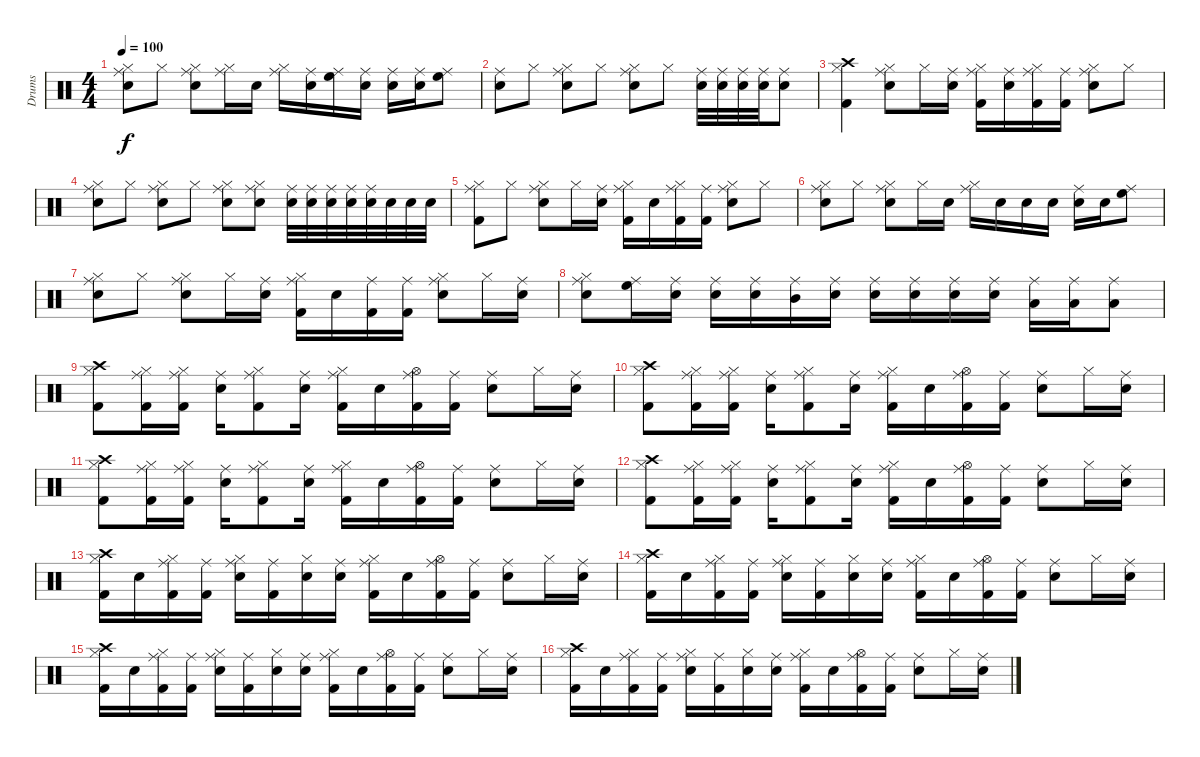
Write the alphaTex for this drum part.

\track ("Drums" "Drums") {instrument percussion}
\staff {score}
\articulation defaults
\ts (4 4)
\tempo 100
\clef neutral
\ks c
("Ride (middle)" "Hi-Hat (closed)" "Electric Snare (hit)").8{dy f} "Hi-Hat (closed)".8 ("Ride (middle)" "Hi-Hat (closed)" "Electric Snare (hit)").8 ("Ride (middle)" "Hi-Hat (closed)").16 "Electric Snare (hit)".16 ("Ride (middle)" "Hi-Hat (closed)").16 ("Ride (middle)" "Electric Snare (hit)").16 ("Ride (middle)" "High Floor Tom (hit)").16 ("Ride (middle)" "Electric Snare (hit)").16 ("Ride (middle)" "Electric Snare (hit)").16 ("Ride (middle)" "Electric Snare (hit)").16 ("Ride (middle)" "High Floor Tom (hit)").8 |
("Ride (middle)" "Electric Snare (hit)").8 "Hi-Hat (closed)".8 ("Ride (middle)" "Hi-Hat (closed)" "Electric Snare (hit)").8 "Hi-Hat (closed)".8 ("Ride (middle)" "Hi-Hat (closed)" "Electric Snare (hit)").8 "Hi-Hat (closed)".8 ("Ride (middle)" "Electric Snare (hit)").32 ("Ride (middle)" "Electric Snare (hit)").32 ("Ride (middle)" "Electric Snare (hit)").32 ("Ride (middle)" "Electric Snare (hit)").32 ("Ride (middle)" "Electric Snare (hit)").8 |
("Crash high (hit)" "Hi-Hat (closed)" "Kick (hit) 2").4 ("Ride (middle)" "Hi-Hat (closed)" "Electric Snare (hit)").8 "Hi-Hat (closed)".16 ("Ride (middle)" "Electric Snare (hit)").16 ("Ride (middle)" "Hi-Hat (closed)" "Kick (hit) 2").16 ("Ride (middle)" "Electric Snare (hit)").16 ("Ride (middle)" "Hi-Hat (closed)" "Kick (hit) 2").16 ("Ride (middle)" "Kick (hit) 2").16 ("Ride (middle)" "Hi-Hat (closed)" "Electric Snare (hit)").8 "Hi-Hat (closed)".8 |
("Ride (middle)" "Hi-Hat (closed)" "Electric Snare (hit)").8 "Hi-Hat (closed)".8 ("Ride (middle)" "Hi-Hat (closed)" "Electric Snare (hit)").8 "Hi-Hat (closed)".8 ("Ride (middle)" "Hi-Hat (closed)" "Electric Snare (hit)").8 ("Ride (middle)" "Hi-Hat (closed)" "Electric Snare (hit)").8 ("Ride (middle)" "Electric Snare (hit)").32 ("Ride (middle)" "Electric Snare (hit)").32 ("Ride (middle)" "Electric Snare (hit)").32 ("Ride (middle)" "Electric Snare (hit)").32 ("Ride (middle)" "Electric Snare (hit)").32 "Electric Snare (hit)".32 "Electric Snare (hit)".32 "Electric Snare (hit)".32 |
("Ride (middle)" "Hi-Hat (closed)" "Kick (hit) 2").8 "Hi-Hat (closed)".8 ("Ride (middle)" "Hi-Hat (closed)" "Electric Snare (hit)").8 "Hi-Hat (closed)".16 ("Ride (middle)" "Electric Snare (hit)").16 ("Ride (middle)" "Hi-Hat (closed)" "Kick (hit) 2").16 "Electric Snare (hit)".16 ("Ride (middle)" "Hi-Hat (closed)" "Kick (hit) 2").16 ("Ride (middle)" "Kick (hit) 2").16 ("Ride (middle)" "Hi-Hat (closed)" "Electric Snare (hit)").8 "Hi-Hat (closed)".8 |
("Ride (middle)" "Hi-Hat (closed)" "Electric Snare (hit)").8 "Hi-Hat (closed)".8 ("Ride (middle)" "Hi-Hat (closed)" "Electric Snare (hit)").8 "Hi-Hat (closed)".16 "Electric Snare (hit)".16 ("Ride (middle)" "Hi-Hat (closed)").16 "Electric Snare (hit)".16 "Electric Snare (hit)".16 "Electric Snare (hit)".16 ("Ride (middle)" "Electric Snare (hit)").16 "Electric Snare (hit)".16 ("Ride (middle)" "High Floor Tom (hit)").8 |
("Ride (middle)" "Hi-Hat (closed)" "Electric Snare (hit)").8 "Hi-Hat (closed)".8 ("Ride (middle)" "Hi-Hat (closed)" "Electric Snare (hit)").8 "Hi-Hat (closed)".16 ("Ride (middle)" "Electric Snare (hit)").16 ("Ride (middle)" "Hi-Hat (closed)" "Kick (hit) 2").16 "Electric Snare (hit)".16 ("Ride (middle)" "Kick (hit) 2").16 ("Ride (middle)" "Kick (hit) 2").16 ("Ride (middle)" "Hi-Hat (closed)" "Electric Snare (hit)").8 "Hi-Hat (closed)".16 ("Ride (middle)" "Electric Snare (hit)").16 |
("Ride (middle)" "Hi-Hat (closed)" "Electric Snare (hit)").8 ("Ride (middle)" "High Floor Tom (hit)").16 ("Ride (middle)" "Electric Snare (hit)").16 ("Ride (middle)" "Electric Snare (hit)").16 ("Ride (middle)" "Electric Snare (hit)").16 ("Ride (middle)" "Mid Tom (hit)").16 ("Ride (middle)" "Electric Snare (hit)").16 ("Ride (middle)" "Electric Snare (hit)").16 ("Ride (middle)" "Electric Snare (hit)").16 ("Ride (middle)" "Electric Snare (hit)").16 ("Ride (middle)" "Electric Snare (hit)").16 ("Ride (middle)" "Low Tom (hit)").16 ("Ride (middle)" "Low Tom (hit)").16 ("Ride (middle)" "Low Floor Tom (hit)").8 |
("Crash high (hit)" "Hi-Hat (closed)" "Kick (hit) 2").8 ("Ride (middle)" "Hi-Hat (closed)" "Kick (hit) 2").16 ("Ride (middle)" "Hi-Hat (closed)" "Kick (hit) 2").16 ("Ride (middle)" "Electric Snare (hit)").16 ("Ride (middle)" "Hi-Hat (closed)" "Kick (hit) 2").8 ("Ride (middle)" "Electric Snare (hit)").16 ("Ride (middle)" "Hi-Hat (closed)" "Kick (hit) 2").16 "Electric Snare (hit)".16 ("Ride (middle)" "Hi-Hat (open)" "Kick (hit) 2").16 ("Ride (middle)" "Kick (hit) 2").16 ("Ride (middle)" "Electric Snare (hit)").8 "Hi-Hat (closed)".16 ("Ride (middle)" "Electric Snare (hit)").16 |
("Crash high (hit)" "Hi-Hat (closed)" "Kick (hit) 2").8 ("Ride (middle)" "Hi-Hat (closed)" "Kick (hit) 2").16 ("Ride (middle)" "Hi-Hat (closed)" "Kick (hit) 2").16 ("Ride (middle)" "Electric Snare (hit)").16 ("Ride (middle)" "Hi-Hat (closed)" "Kick (hit) 2").8 ("Ride (middle)" "Electric Snare (hit)").16 ("Ride (middle)" "Hi-Hat (closed)" "Kick (hit) 2").16 "Electric Snare (hit)".16 ("Ride (middle)" "Hi-Hat (open)" "Kick (hit) 2").16 ("Ride (middle)" "Kick (hit) 2").16 ("Ride (middle)" "Electric Snare (hit)").8 "Hi-Hat (closed)".16 ("Ride (middle)" "Electric Snare (hit)").16 |
("Crash high (hit)" "Hi-Hat (closed)" "Kick (hit) 2").8 ("Ride (middle)" "Hi-Hat (closed)" "Kick (hit) 2").16 ("Ride (middle)" "Hi-Hat (closed)" "Kick (hit) 2").16 ("Ride (middle)" "Electric Snare (hit)").16 ("Ride (middle)" "Hi-Hat (closed)" "Kick (hit) 2").8 ("Ride (middle)" "Electric Snare (hit)").16 ("Ride (middle)" "Hi-Hat (closed)" "Kick (hit) 2").16 "Electric Snare (hit)".16 ("Ride (middle)" "Hi-Hat (open)" "Kick (hit) 2").16 ("Ride (middle)" "Kick (hit) 2").16 ("Ride (middle)" "Electric Snare (hit)").8 "Hi-Hat (closed)".16 ("Ride (middle)" "Electric Snare (hit)").16 |
("Crash high (hit)" "Hi-Hat (closed)" "Kick (hit) 2").8 ("Ride (middle)" "Hi-Hat (closed)" "Kick (hit) 2").16 ("Ride (middle)" "Hi-Hat (closed)" "Kick (hit) 2").16 ("Ride (middle)" "Electric Snare (hit)").16 ("Ride (middle)" "Hi-Hat (closed)" "Kick (hit) 2").8 ("Ride (middle)" "Electric Snare (hit)").16 ("Ride (middle)" "Hi-Hat (closed)" "Kick (hit) 2").16 "Electric Snare (hit)".16 ("Ride (middle)" "Hi-Hat (open)" "Kick (hit) 2").16 ("Ride (middle)" "Kick (hit) 2").16 ("Ride (middle)" "Electric Snare (hit)").8 "Hi-Hat (closed)".16 ("Ride (middle)" "Electric Snare (hit)").16 |
("Crash high (hit)" "Hi-Hat (closed)" "Kick (hit) 2").16 "Electric Snare (hit)".16 ("Ride (middle)" "Hi-Hat (closed)" "Kick (hit) 2").16 ("Ride (middle)" "Kick (hit) 2").16 ("Ride (middle)" "Hi-Hat (closed)" "Electric Snare (hit)").16 ("Ride (middle)" "Kick (hit) 2").16 ("Hi-Hat (closed)" "Electric Snare (hit)").16 ("Ride (middle)" "Electric Snare (hit)").16 ("Ride (middle)" "Hi-Hat (closed)" "Kick (hit) 2").16 "Electric Snare (hit)".16 ("Ride (middle)" "Hi-Hat (open)" "Kick (hit) 2").16 ("Ride (middle)" "Kick (hit) 2").16 ("Ride (middle)" "Electric Snare (hit)").8 "Hi-Hat (closed)".16 ("Ride (middle)" "Electric Snare (hit)").16 |
("Crash high (hit)" "Hi-Hat (closed)" "Kick (hit) 2").16 "Electric Snare (hit)".16 ("Ride (middle)" "Hi-Hat (closed)" "Kick (hit) 2").16 ("Ride (middle)" "Kick (hit) 2").16 ("Ride (middle)" "Hi-Hat (closed)" "Electric Snare (hit)").16 ("Ride (middle)" "Kick (hit) 2").16 ("Hi-Hat (closed)" "Electric Snare (hit)").16 ("Ride (middle)" "Electric Snare (hit)").16 ("Ride (middle)" "Hi-Hat (closed)" "Kick (hit) 2").16 "Electric Snare (hit)".16 ("Ride (middle)" "Hi-Hat (open)" "Kick (hit) 2").16 ("Ride (middle)" "Kick (hit) 2").16 ("Ride (middle)" "Electric Snare (hit)").8 "Hi-Hat (closed)".16 ("Ride (middle)" "Electric Snare (hit)").16 |
("Crash high (hit)" "Hi-Hat (closed)" "Kick (hit) 2").16 "Electric Snare (hit)".16 ("Ride (middle)" "Hi-Hat (closed)" "Kick (hit) 2").16 ("Ride (middle)" "Kick (hit) 2").16 ("Ride (middle)" "Hi-Hat (closed)" "Electric Snare (hit)").16 ("Ride (middle)" "Kick (hit) 2").16 ("Hi-Hat (closed)" "Electric Snare (hit)").16 ("Ride (middle)" "Electric Snare (hit)").16 ("Ride (middle)" "Hi-Hat (closed)" "Kick (hit) 2").16 "Electric Snare (hit)".16 ("Ride (middle)" "Hi-Hat (open)" "Kick (hit) 2").16 ("Ride (middle)" "Kick (hit) 2").16 ("Ride (middle)" "Electric Snare (hit)").8 "Hi-Hat (closed)".16 ("Ride (middle)" "Electric Snare (hit)").16 |
("Crash high (hit)" "Hi-Hat (closed)" "Kick (hit) 2").16 "Electric Snare (hit)".16 ("Ride (middle)" "Hi-Hat (closed)" "Kick (hit) 2").16 ("Ride (middle)" "Kick (hit) 2").16 ("Ride (middle)" "Hi-Hat (closed)" "Electric Snare (hit)").16 ("Ride (middle)" "Kick (hit) 2").16 ("Hi-Hat (closed)" "Electric Snare (hit)").16 ("Ride (middle)" "Electric Snare (hit)").16 ("Ride (middle)" "Hi-Hat (closed)" "Kick (hit) 2").16 "Electric Snare (hit)".16 ("Ride (middle)" "Hi-Hat (open)" "Kick (hit) 2").16 ("Ride (middle)" "Kick (hit) 2").16 ("Ride (middle)" "Electric Snare (hit)").8 "Hi-Hat (closed)".16 ("Ride (middle)" "Electric Snare (hit)").16
